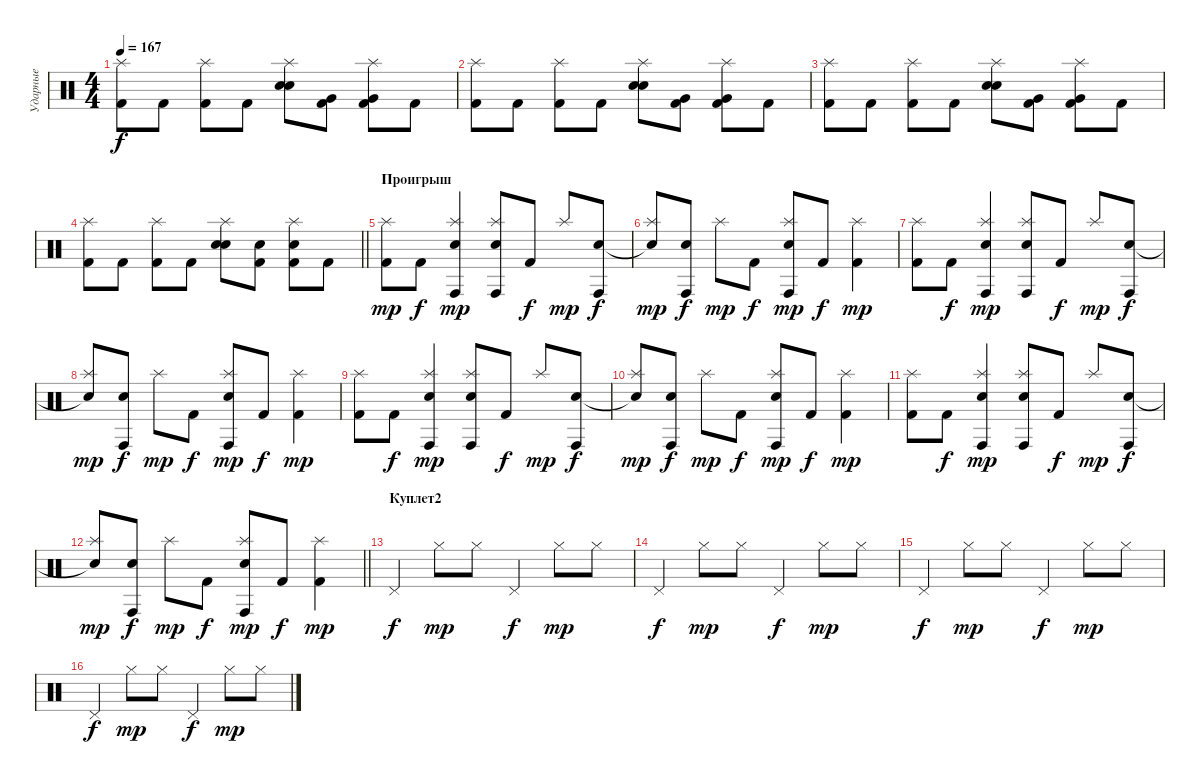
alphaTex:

\track ("Ударные" "Ударные") {instrument percussion}
\staff {score}
\articulation defaults
\ts (4 4)
\tempo 167
\clef neutral
\ks c
("Splash (hit)" "Kick (hit) 2").8{dy f} "Kick (hit) 2".8 ("Splash (hit)" "Kick (hit) 2").8 "Kick (hit) 2".8 ("Splash (hit)" "Electric Snare (hit)" "Snare (hit) 2").8 ("Very Low Tom (hit)" "Kick (hit) 2").8 ("Splash (hit)" "Very Low Tom (hit)" "Kick (hit) 2").8 "Kick (hit) 2".8 |
("Splash (hit)" "Kick (hit) 2").8 "Kick (hit) 2".8 ("Splash (hit)" "Kick (hit) 2").8 "Kick (hit) 2".8 ("Splash (hit)" "Electric Snare (hit)" "Snare (hit) 2").8 ("Very Low Tom (hit)" "Kick (hit) 2").8 ("Splash (hit)" "Very Low Tom (hit)" "Kick (hit) 2").8 "Kick (hit) 2".8 |
("Splash (hit)" "Kick (hit) 2").8 "Kick (hit) 2".8 ("Splash (hit)" "Kick (hit) 2").8 "Kick (hit) 2".8 ("Splash (hit)" "Electric Snare (hit)" "Snare (hit) 2").8 ("Very Low Tom (hit)" "Kick (hit) 2").8 ("Splash (hit)" "Very Low Tom (hit)" "Kick (hit) 2").8 "Kick (hit) 2".8 |
\barLineRight lightlight
("Splash (hit)" "Kick (hit) 2").8 "Kick (hit) 2".8 ("Splash (hit)" "Kick (hit) 2").8 "Kick (hit) 2".8 ("Splash (hit)" "Electric Snare (hit)" "Snare (hit) 2").8 ("Electric Snare (hit)" "Kick (hit) 2").8 ("Splash (hit)" "Electric Snare (hit)" "Kick (hit) 2").8 "Kick (hit) 2".8 |
\section ("" "Проигрыш")
("Splash (hit)" "Kick (hit) 2").8{dy mp} "Kick (hit) 2".8{dy f} ("Splash (hit)" "Conga high (hit)" "Electric Snare (hit)").4{dy mp} ("Splash (hit)" "Conga high (hit)" "Electric Snare (hit)").8 "Kick (hit) 2".8{dy f} "Splash (hit)".8{dy mp} ("Conga high (hit)" "Electric Snare (hit)").8{dy f} |
("Splash (hit)" "Electric Snare (hit)"{t}).8{dy mp} ("Conga high (hit)" "Electric Snare (hit)").8{dy f} "Splash (hit)".8{dy mp} "Kick (hit) 2".8{dy f} ("Splash (hit)" "Conga high (hit)" "Electric Snare (hit)").8{dy mp} "Kick (hit) 2".8{dy f} ("Splash (hit)" "Kick (hit) 2").4{dy mp} |
("Splash (hit)" "Kick (hit) 2").8 "Kick (hit) 2".8{dy f} ("Splash (hit)" "Conga high (hit)" "Electric Snare (hit)").4{dy mp} ("Splash (hit)" "Conga high (hit)" "Electric Snare (hit)").8 "Kick (hit) 2".8{dy f} "Splash (hit)".8{dy mp} ("Conga high (hit)" "Electric Snare (hit)").8{dy f} |
("Splash (hit)" "Electric Snare (hit)"{t}).8{dy mp} ("Conga high (hit)" "Electric Snare (hit)").8{dy f} "Splash (hit)".8{dy mp} "Kick (hit) 2".8{dy f} ("Splash (hit)" "Conga high (hit)" "Electric Snare (hit)").8{dy mp} "Kick (hit) 2".8{dy f} ("Splash (hit)" "Kick (hit) 2").4{dy mp} |
("Splash (hit)" "Kick (hit) 2").8 "Kick (hit) 2".8{dy f} ("Splash (hit)" "Conga high (hit)" "Electric Snare (hit)").4{dy mp} ("Splash (hit)" "Conga high (hit)" "Electric Snare (hit)").8 "Kick (hit) 2".8{dy f} "Splash (hit)".8{dy mp} ("Conga high (hit)" "Electric Snare (hit)").8{dy f} |
("Splash (hit)" "Electric Snare (hit)"{t}).8{dy mp} ("Conga high (hit)" "Electric Snare (hit)").8{dy f} "Splash (hit)".8{dy mp} "Kick (hit) 2".8{dy f} ("Splash (hit)" "Conga high (hit)" "Electric Snare (hit)").8{dy mp} "Kick (hit) 2".8{dy f} ("Splash (hit)" "Kick (hit) 2").4{dy mp} |
("Splash (hit)" "Kick (hit) 2").8 "Kick (hit) 2".8{dy f} ("Splash (hit)" "Conga high (hit)" "Electric Snare (hit)").4{dy mp} ("Splash (hit)" "Conga high (hit)" "Electric Snare (hit)").8 "Kick (hit) 2".8{dy f} "Splash (hit)".8{dy mp} ("Conga high (hit)" "Electric Snare (hit)").8{dy f} |
\barLineRight lightlight
("Splash (hit)" "Electric Snare (hit)"{t}).8{dy mp} ("Conga high (hit)" "Electric Snare (hit)").8{dy f} "Splash (hit)".8{dy mp} "Kick (hit) 2".8{dy f} ("Splash (hit)" "Conga high (hit)" "Electric Snare (hit)").8{dy mp} "Kick (hit) 2".8{dy f} ("Splash (hit)" "Kick (hit) 2").4{dy mp} |
\section ("" "Куплет2")
"Pedal Hi-Hat (hit)".4{dy f} "Hi-Hat (closed)".8{dy mp} "Hi-Hat (closed)".8 "Pedal Hi-Hat (hit)".4{dy f} "Hi-Hat (closed)".8{dy mp} "Hi-Hat (closed)".8 |
"Pedal Hi-Hat (hit)".4{dy f} "Hi-Hat (closed)".8{dy mp} "Hi-Hat (closed)".8 "Pedal Hi-Hat (hit)".4{dy f} "Hi-Hat (closed)".8{dy mp} "Hi-Hat (closed)".8 |
"Pedal Hi-Hat (hit)".4{dy f} "Hi-Hat (closed)".8{dy mp} "Hi-Hat (closed)".8 "Pedal Hi-Hat (hit)".4{dy f} "Hi-Hat (closed)".8{dy mp} "Hi-Hat (closed)".8 |
"Pedal Hi-Hat (hit)".4{dy f} "Hi-Hat (closed)".8{dy mp} "Hi-Hat (closed)".8 "Pedal Hi-Hat (hit)".4{dy f} "Hi-Hat (closed)".8{dy mp} "Hi-Hat (closed)".8
